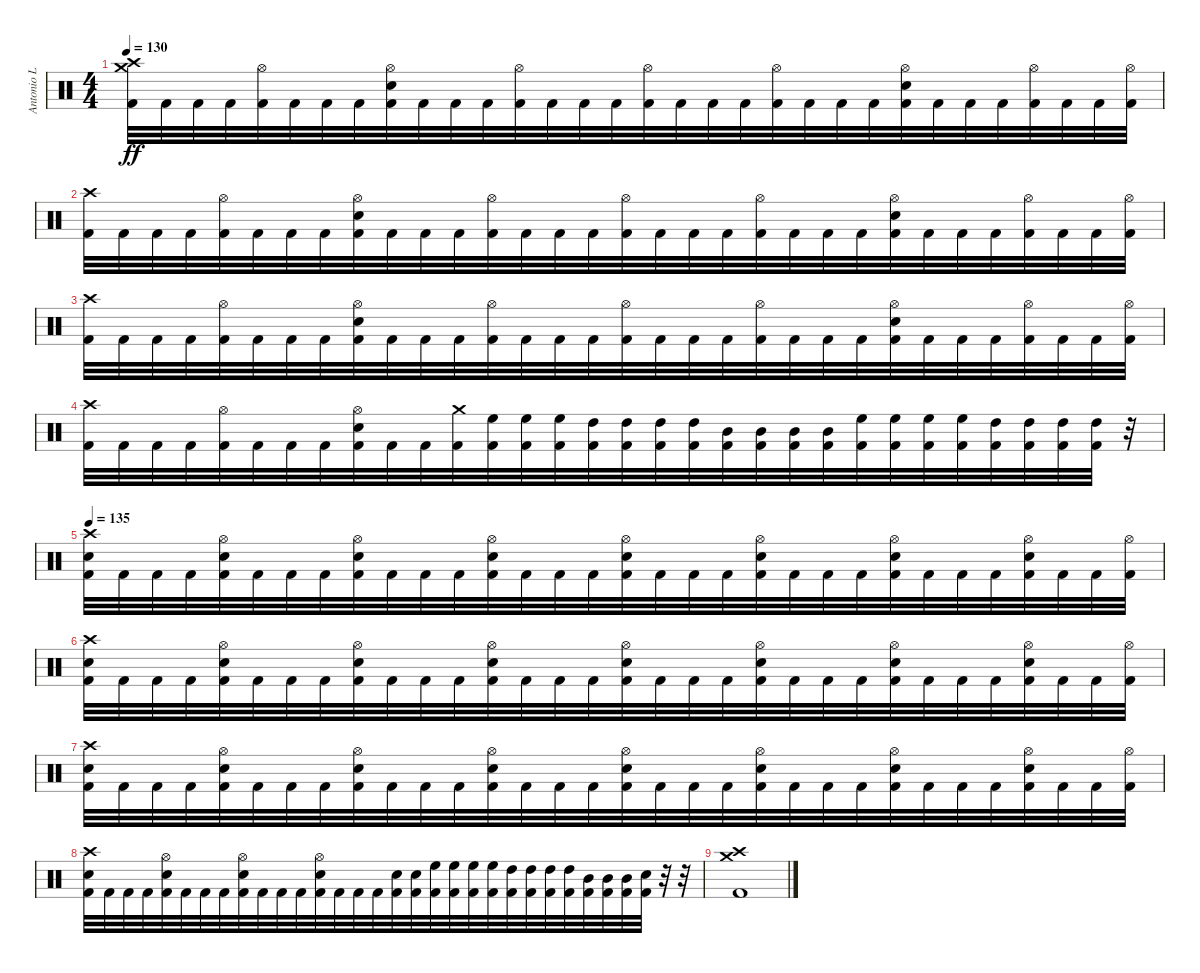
\track ("Antonio L" "Antonio L") {instrument percussion}
\staff {score}
\articulation defaults
\ts (4 4)
\tempo 130
\clef neutral
\ks c
("Crash high (hit)" "Crash medium (hit)" "Kick (hit) 2").32{dy ff} "Kick (hit) 2".32 "Kick (hit) 2".32 "Kick (hit) 2".32 ("Hi-Hat (open)" "Kick (hit) 2").32 "Kick (hit) 2".32 "Kick (hit) 2".32 "Kick (hit) 2".32{beam merge} ("Hi-Hat (open)" "Electric Snare (hit)" "Kick (hit) 2").32 "Kick (hit) 2".32 "Kick (hit) 2".32 "Kick (hit) 2".32 ("Hi-Hat (open)" "Kick (hit) 2").32 "Kick (hit) 2".32 "Kick (hit) 2".32 "Kick (hit) 2".32{beam merge} ("Hi-Hat (open)" "Kick (hit) 2").32 "Kick (hit) 2".32 "Kick (hit) 2".32 "Kick (hit) 2".32 ("Hi-Hat (open)" "Kick (hit) 2").32 "Kick (hit) 2".32 "Kick (hit) 2".32 "Kick (hit) 2".32{beam merge} ("Hi-Hat (open)" "Electric Snare (hit)" "Kick (hit) 2").32 "Kick (hit) 2".32 "Kick (hit) 2".32 "Kick (hit) 2".32 ("Hi-Hat (open)" "Kick (hit) 2").32 "Kick (hit) 2".32 "Kick (hit) 2".32 ("Hi-Hat (open)" "Kick (hit) 2").32 |
("Crash high (hit)" "Kick (hit) 2").32 "Kick (hit) 2".32 "Kick (hit) 2".32 "Kick (hit) 2".32 ("Hi-Hat (open)" "Kick (hit) 2").32 "Kick (hit) 2".32 "Kick (hit) 2".32 "Kick (hit) 2".32{beam merge} ("Hi-Hat (open)" "Electric Snare (hit)" "Kick (hit) 2").32 "Kick (hit) 2".32 "Kick (hit) 2".32 "Kick (hit) 2".32 ("Hi-Hat (open)" "Kick (hit) 2").32 "Kick (hit) 2".32 "Kick (hit) 2".32 "Kick (hit) 2".32{beam merge} ("Hi-Hat (open)" "Kick (hit) 2").32 "Kick (hit) 2".32 "Kick (hit) 2".32 "Kick (hit) 2".32 ("Hi-Hat (open)" "Kick (hit) 2").32 "Kick (hit) 2".32 "Kick (hit) 2".32 "Kick (hit) 2".32{beam merge} ("Hi-Hat (open)" "Electric Snare (hit)" "Kick (hit) 2").32 "Kick (hit) 2".32 "Kick (hit) 2".32 "Kick (hit) 2".32 ("Hi-Hat (open)" "Kick (hit) 2").32 "Kick (hit) 2".32 "Kick (hit) 2".32 ("Hi-Hat (open)" "Kick (hit) 2").32 |
("Crash high (hit)" "Kick (hit) 2").32 "Kick (hit) 2".32 "Kick (hit) 2".32 "Kick (hit) 2".32 ("Hi-Hat (open)" "Kick (hit) 2").32 "Kick (hit) 2".32 "Kick (hit) 2".32 "Kick (hit) 2".32{beam merge} ("Hi-Hat (open)" "Electric Snare (hit)" "Kick (hit) 2").32 "Kick (hit) 2".32 "Kick (hit) 2".32 "Kick (hit) 2".32 ("Hi-Hat (open)" "Kick (hit) 2").32 "Kick (hit) 2".32 "Kick (hit) 2".32 "Kick (hit) 2".32{beam merge} ("Hi-Hat (open)" "Kick (hit) 2").32 "Kick (hit) 2".32 "Kick (hit) 2".32 "Kick (hit) 2".32 ("Hi-Hat (open)" "Kick (hit) 2").32 "Kick (hit) 2".32 "Kick (hit) 2".32 "Kick (hit) 2".32{beam merge} ("Hi-Hat (open)" "Electric Snare (hit)" "Kick (hit) 2").32 "Kick (hit) 2".32 "Kick (hit) 2".32 "Kick (hit) 2".32 ("Hi-Hat (open)" "Kick (hit) 2").32 "Kick (hit) 2".32 "Kick (hit) 2".32 ("Hi-Hat (open)" "Kick (hit) 2").32 |
("Crash high (hit)" "Kick (hit) 2").32 "Kick (hit) 2".32 "Kick (hit) 2".32 "Kick (hit) 2".32 ("Hi-Hat (open)" "Kick (hit) 2").32 "Kick (hit) 2".32 "Kick (hit) 2".32 "Kick (hit) 2".32{beam merge} ("Hi-Hat (open)" "Electric Snare (hit)" "Kick (hit) 2").32 "Kick (hit) 2".32 "Kick (hit) 2".32 ("Crash medium (hit)" "Kick (hit) 2").32 ("High Floor Tom (hit)" "Kick (hit) 2").32 ("High Floor Tom (hit)" "Kick (hit) 2").32 ("High Floor Tom (hit)" "Kick (hit) 2").32 ("High Tom (hit)" "Kick (hit) 2").32{beam merge} ("High Tom (hit)" "Kick (hit) 2").32 ("High Tom (hit)" "Kick (hit) 2").32 ("High Tom (hit)" "Kick (hit) 2").32 ("Mid Tom (hit)" "Kick (hit) 2").32 ("Mid Tom (hit)" "Kick (hit) 2").32 ("Mid Tom (hit)" "Kick (hit) 2").32 ("Mid Tom (hit)" "Kick (hit) 2").32 ("High Floor Tom (hit)" "Kick (hit) 2").32{beam merge} ("High Floor Tom (hit)" "Kick (hit) 2").32 ("High Floor Tom (hit)" "Kick (hit) 2").32 ("High Floor Tom (hit)" "Kick (hit) 2").32 ("High Tom (hit)" "Kick (hit) 2").32 ("High Tom (hit)" "Kick (hit) 2").32 ("High Tom (hit)" "Kick (hit) 2").32 ("High Tom (hit)" "Kick (hit) 2").32 r.32 |
\tempo 135
("Crash high (hit)" "Electric Snare (hit)" "Kick (hit) 2").32 "Kick (hit) 2".32 "Kick (hit) 2".32 "Kick (hit) 2".32 ("Hi-Hat (open)" "Electric Snare (hit)" "Kick (hit) 2").32 "Kick (hit) 2".32 "Kick (hit) 2".32 "Kick (hit) 2".32{beam merge} ("Hi-Hat (open)" "Electric Snare (hit)" "Kick (hit) 2").32 "Kick (hit) 2".32 "Kick (hit) 2".32 "Kick (hit) 2".32 ("Hi-Hat (open)" "Electric Snare (hit)" "Kick (hit) 2").32 "Kick (hit) 2".32 "Kick (hit) 2".32 "Kick (hit) 2".32{beam merge} ("Hi-Hat (open)" "Electric Snare (hit)" "Kick (hit) 2").32 "Kick (hit) 2".32 "Kick (hit) 2".32 "Kick (hit) 2".32 ("Hi-Hat (open)" "Electric Snare (hit)" "Kick (hit) 2").32 "Kick (hit) 2".32 "Kick (hit) 2".32 "Kick (hit) 2".32{beam merge} ("Hi-Hat (open)" "Electric Snare (hit)" "Kick (hit) 2").32 "Kick (hit) 2".32 "Kick (hit) 2".32 "Kick (hit) 2".32 ("Hi-Hat (open)" "Electric Snare (hit)" "Kick (hit) 2").32 "Kick (hit) 2".32 "Kick (hit) 2".32 ("Hi-Hat (open)" "Kick (hit) 2").32 |
("Crash high (hit)" "Electric Snare (hit)" "Kick (hit) 2").32 "Kick (hit) 2".32 "Kick (hit) 2".32 "Kick (hit) 2".32 ("Hi-Hat (open)" "Electric Snare (hit)" "Kick (hit) 2").32 "Kick (hit) 2".32 "Kick (hit) 2".32 "Kick (hit) 2".32{beam merge} ("Hi-Hat (open)" "Electric Snare (hit)" "Kick (hit) 2").32 "Kick (hit) 2".32 "Kick (hit) 2".32 "Kick (hit) 2".32 ("Hi-Hat (open)" "Electric Snare (hit)" "Kick (hit) 2").32 "Kick (hit) 2".32 "Kick (hit) 2".32 "Kick (hit) 2".32{beam merge} ("Hi-Hat (open)" "Electric Snare (hit)" "Kick (hit) 2").32 "Kick (hit) 2".32 "Kick (hit) 2".32 "Kick (hit) 2".32 ("Hi-Hat (open)" "Electric Snare (hit)" "Kick (hit) 2").32 "Kick (hit) 2".32 "Kick (hit) 2".32 "Kick (hit) 2".32{beam merge} ("Hi-Hat (open)" "Electric Snare (hit)" "Kick (hit) 2").32 "Kick (hit) 2".32 "Kick (hit) 2".32 "Kick (hit) 2".32 ("Hi-Hat (open)" "Electric Snare (hit)" "Kick (hit) 2").32 "Kick (hit) 2".32 "Kick (hit) 2".32 ("Hi-Hat (open)" "Kick (hit) 2").32 |
("Crash high (hit)" "Electric Snare (hit)" "Kick (hit) 2").32 "Kick (hit) 2".32 "Kick (hit) 2".32 "Kick (hit) 2".32 ("Hi-Hat (open)" "Electric Snare (hit)" "Kick (hit) 2").32 "Kick (hit) 2".32 "Kick (hit) 2".32 "Kick (hit) 2".32{beam merge} ("Hi-Hat (open)" "Electric Snare (hit)" "Kick (hit) 2").32 "Kick (hit) 2".32 "Kick (hit) 2".32 "Kick (hit) 2".32 ("Hi-Hat (open)" "Electric Snare (hit)" "Kick (hit) 2").32 "Kick (hit) 2".32 "Kick (hit) 2".32 "Kick (hit) 2".32{beam merge} ("Hi-Hat (open)" "Electric Snare (hit)" "Kick (hit) 2").32 "Kick (hit) 2".32 "Kick (hit) 2".32 "Kick (hit) 2".32 ("Hi-Hat (open)" "Electric Snare (hit)" "Kick (hit) 2").32 "Kick (hit) 2".32 "Kick (hit) 2".32 "Kick (hit) 2".32{beam merge} ("Hi-Hat (open)" "Electric Snare (hit)" "Kick (hit) 2").32 "Kick (hit) 2".32 "Kick (hit) 2".32 "Kick (hit) 2".32 ("Hi-Hat (open)" "Electric Snare (hit)" "Kick (hit) 2").32 "Kick (hit) 2".32 "Kick (hit) 2".32 ("Hi-Hat (open)" "Kick (hit) 2").32 |
("Crash high (hit)" "Electric Snare (hit)" "Kick (hit) 2").32 "Kick (hit) 2".32 "Kick (hit) 2".32 "Kick (hit) 2".32 ("Hi-Hat (open)" "Electric Snare (hit)" "Kick (hit) 2").32 "Kick (hit) 2".32 "Kick (hit) 2".32 "Kick (hit) 2".32{beam merge} ("Hi-Hat (open)" "Electric Snare (hit)" "Kick (hit) 2").32 "Kick (hit) 2".32 "Kick (hit) 2".32 "Kick (hit) 2".32 ("Hi-Hat (open)" "Electric Snare (hit)" "Kick (hit) 2").32 "Kick (hit) 2".32 "Kick (hit) 2".32 "Kick (hit) 2".32{beam merge} ("Electric Snare (hit)" "Kick (hit) 2").32 ("Electric Snare (hit)" "Kick (hit) 2").32 ("High Floor Tom (hit)" "Kick (hit) 2").32 ("High Floor Tom (hit)" "Kick (hit) 2").32 ("High Floor Tom (hit)" "Kick (hit) 2").32 ("High Floor Tom (hit)" "Kick (hit) 2").32 ("High Tom (hit)" "Kick (hit) 2").32 ("High Tom (hit)" "Kick (hit) 2").32{beam merge} ("High Tom (hit)" "Kick (hit) 2").32 ("High Tom (hit)" "Kick (hit) 2").32 ("Mid Tom (hit)" "Kick (hit) 2").32 ("Mid Tom (hit)" "Kick (hit) 2").32 ("Mid Tom (hit)" "Kick (hit) 2").32 ("Electric Snare (hit)" "Kick (hit) 2").32 r.32 r.32 |
("Crash medium (hit)" "Crash high (hit)" "Kick (hit) 2").1
